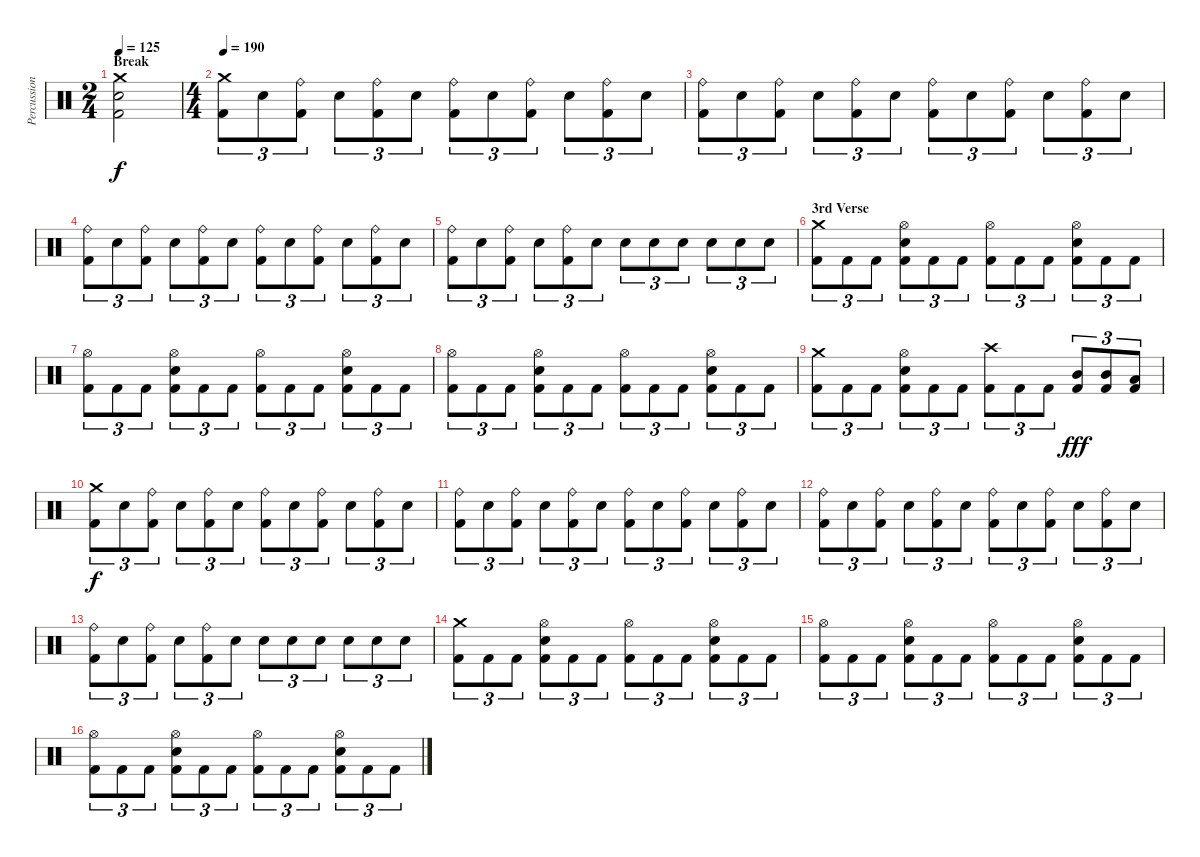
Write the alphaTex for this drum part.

\track ("Percussion" "Percussion") {instrument percussion}
\staff {score}
\articulation defaults
\ts (2 4)
\section ("" "Break")
\tempo 125
\clef neutral
\ks c
("Kick (hit) 2" "Electric Snare (hit)" "Crash medium (hit)").2{dy f} |
\ts (4 4)
\tempo 190
("Kick (hit) 2" "Crash medium (hit)").8{tu (3 2)} "Electric Snare (hit)".8{tu (3 2)} ("Kick (hit) 2" "Ride (bell)").8{tu (3 2)} "Electric Snare (hit)".8{tu (3 2)} ("Kick (hit) 2" "Ride (bell)").8{tu (3 2)} "Electric Snare (hit)".8{tu (3 2)} ("Kick (hit) 2" "Ride (bell)").8{tu (3 2)} "Electric Snare (hit)".8{tu (3 2)} ("Kick (hit) 2" "Ride (bell)").8{tu (3 2)} "Electric Snare (hit)".8{tu (3 2)} ("Kick (hit) 2" "Ride (bell)").8{tu (3 2)} "Electric Snare (hit)".8{tu (3 2)} |
("Kick (hit) 2" "Ride (bell)").8{tu (3 2)} "Electric Snare (hit)".8{tu (3 2)} ("Kick (hit) 2" "Ride (bell)").8{tu (3 2)} "Electric Snare (hit)".8{tu (3 2)} ("Kick (hit) 2" "Ride (bell)").8{tu (3 2)} "Electric Snare (hit)".8{tu (3 2)} ("Kick (hit) 2" "Ride (bell)").8{tu (3 2)} "Electric Snare (hit)".8{tu (3 2)} ("Kick (hit) 2" "Ride (bell)").8{tu (3 2)} "Electric Snare (hit)".8{tu (3 2)} ("Kick (hit) 2" "Ride (bell)").8{tu (3 2)} "Electric Snare (hit)".8{tu (3 2)} |
("Kick (hit) 2" "Ride (bell)").8{tu (3 2)} "Electric Snare (hit)".8{tu (3 2)} ("Kick (hit) 2" "Ride (bell)").8{tu (3 2)} "Electric Snare (hit)".8{tu (3 2)} ("Kick (hit) 2" "Ride (bell)").8{tu (3 2)} "Electric Snare (hit)".8{tu (3 2)} ("Kick (hit) 2" "Ride (bell)").8{tu (3 2)} "Electric Snare (hit)".8{tu (3 2)} ("Kick (hit) 2" "Ride (bell)").8{tu (3 2)} "Electric Snare (hit)".8{tu (3 2)} ("Kick (hit) 2" "Ride (bell)").8{tu (3 2)} "Electric Snare (hit)".8{tu (3 2)} |
("Kick (hit) 2" "Ride (bell)").8{tu (3 2)} "Electric Snare (hit)".8{tu (3 2)} ("Kick (hit) 2" "Ride (bell)").8{tu (3 2)} "Electric Snare (hit)".8{tu (3 2)} ("Kick (hit) 2" "Ride (bell)").8{tu (3 2)} "Electric Snare (hit)".8{tu (3 2)} "Electric Snare (hit)".8{tu (3 2)} "Electric Snare (hit)".8{tu (3 2)} "Electric Snare (hit)".8{tu (3 2)} "Electric Snare (hit)".8{tu (3 2)} "Electric Snare (hit)".8{tu (3 2)} "Electric Snare (hit)".8{tu (3 2)} |
\section ("" "3rd Verse")
("Kick (hit) 2" "Crash medium (hit)").8{tu (3 2)} "Kick (hit) 2".8{tu (3 2)} "Kick (hit) 2".8{tu (3 2)} ("Kick (hit) 2" "Electric Snare (hit)" "Hi-Hat (open)").8{tu (3 2)} "Kick (hit) 2".8{tu (3 2)} "Kick (hit) 2".8{tu (3 2)} ("Kick (hit) 2" "Hi-Hat (open)").8{tu (3 2)} "Kick (hit) 2".8{tu (3 2)} "Kick (hit) 2".8{tu (3 2)} ("Kick (hit) 2" "Electric Snare (hit)" "Hi-Hat (open)").8{tu (3 2)} "Kick (hit) 2".8{tu (3 2)} "Kick (hit) 2".8{tu (3 2)} |
("Kick (hit) 2" "Hi-Hat (open)").8{tu (3 2)} "Kick (hit) 2".8{tu (3 2)} "Kick (hit) 2".8{tu (3 2)} ("Kick (hit) 2" "Electric Snare (hit)" "Hi-Hat (open)").8{tu (3 2)} "Kick (hit) 2".8{tu (3 2)} "Kick (hit) 2".8{tu (3 2)} ("Kick (hit) 2" "Hi-Hat (open)").8{tu (3 2)} "Kick (hit) 2".8{tu (3 2)} "Kick (hit) 2".8{tu (3 2)} ("Kick (hit) 2" "Electric Snare (hit)" "Hi-Hat (open)").8{tu (3 2)} "Kick (hit) 2".8{tu (3 2)} "Kick (hit) 2".8{tu (3 2)} |
("Kick (hit) 2" "Hi-Hat (open)").8{tu (3 2)} "Kick (hit) 2".8{tu (3 2)} "Kick (hit) 2".8{tu (3 2)} ("Kick (hit) 2" "Electric Snare (hit)" "Hi-Hat (open)").8{tu (3 2)} "Kick (hit) 2".8{tu (3 2)} "Kick (hit) 2".8{tu (3 2)} ("Kick (hit) 2" "Hi-Hat (open)").8{tu (3 2)} "Kick (hit) 2".8{tu (3 2)} "Kick (hit) 2".8{tu (3 2)} ("Kick (hit) 2" "Electric Snare (hit)" "Hi-Hat (open)").8{tu (3 2)} "Kick (hit) 2".8{tu (3 2)} "Kick (hit) 2".8{tu (3 2)} |
("Kick (hit) 2" "Crash medium (hit)").8{tu (3 2)} "Kick (hit) 2".8{tu (3 2)} "Kick (hit) 2".8{tu (3 2)} ("Kick (hit) 2" "Electric Snare (hit)" "Hi-Hat (open)").8{tu (3 2)} "Kick (hit) 2".8{tu (3 2)} "Kick (hit) 2".8{tu (3 2)} ("Kick (hit) 2" "Crash high (hit)").8{tu (3 2)} "Kick (hit) 2".8{tu (3 2)} "Kick (hit) 2".8{tu (3 2)} ("Kick (hit) 2" "Mid Tom (hit)").8{tu (3 2) dy fff} ("Kick (hit) 2" "Mid Tom (hit)").8{tu (3 2)} ("Kick (hit) 2" "Low Tom (hit)").8{tu (3 2)} |
("Kick (hit) 2" "Crash medium (hit)").8{tu (3 2) dy f} "Electric Snare (hit)".8{tu (3 2)} ("Kick (hit) 2" "Ride (bell)").8{tu (3 2)} "Electric Snare (hit)".8{tu (3 2)} ("Kick (hit) 2" "Ride (bell)").8{tu (3 2)} "Electric Snare (hit)".8{tu (3 2)} ("Kick (hit) 2" "Ride (bell)").8{tu (3 2)} "Electric Snare (hit)".8{tu (3 2)} ("Kick (hit) 2" "Ride (bell)").8{tu (3 2)} "Electric Snare (hit)".8{tu (3 2)} ("Kick (hit) 2" "Ride (bell)").8{tu (3 2)} "Electric Snare (hit)".8{tu (3 2)} |
("Kick (hit) 2" "Ride (bell)").8{tu (3 2)} "Electric Snare (hit)".8{tu (3 2)} ("Kick (hit) 2" "Ride (bell)").8{tu (3 2)} "Electric Snare (hit)".8{tu (3 2)} ("Kick (hit) 2" "Ride (bell)").8{tu (3 2)} "Electric Snare (hit)".8{tu (3 2)} ("Kick (hit) 2" "Ride (bell)").8{tu (3 2)} "Electric Snare (hit)".8{tu (3 2)} ("Kick (hit) 2" "Ride (bell)").8{tu (3 2)} "Electric Snare (hit)".8{tu (3 2)} ("Kick (hit) 2" "Ride (bell)").8{tu (3 2)} "Electric Snare (hit)".8{tu (3 2)} |
("Kick (hit) 2" "Ride (bell)").8{tu (3 2)} "Electric Snare (hit)".8{tu (3 2)} ("Kick (hit) 2" "Ride (bell)").8{tu (3 2)} "Electric Snare (hit)".8{tu (3 2)} ("Kick (hit) 2" "Ride (bell)").8{tu (3 2)} "Electric Snare (hit)".8{tu (3 2)} ("Kick (hit) 2" "Ride (bell)").8{tu (3 2)} "Electric Snare (hit)".8{tu (3 2)} ("Kick (hit) 2" "Ride (bell)").8{tu (3 2)} "Electric Snare (hit)".8{tu (3 2)} ("Kick (hit) 2" "Ride (bell)").8{tu (3 2)} "Electric Snare (hit)".8{tu (3 2)} |
("Kick (hit) 2" "Ride (bell)").8{tu (3 2)} "Electric Snare (hit)".8{tu (3 2)} ("Kick (hit) 2" "Ride (bell)").8{tu (3 2)} "Electric Snare (hit)".8{tu (3 2)} ("Kick (hit) 2" "Ride (bell)").8{tu (3 2)} "Electric Snare (hit)".8{tu (3 2)} "Electric Snare (hit)".8{tu (3 2)} "Electric Snare (hit)".8{tu (3 2)} "Electric Snare (hit)".8{tu (3 2)} "Electric Snare (hit)".8{tu (3 2)} "Electric Snare (hit)".8{tu (3 2)} "Electric Snare (hit)".8{tu (3 2)} |
("Kick (hit) 2" "Crash medium (hit)").8{tu (3 2)} "Kick (hit) 2".8{tu (3 2)} "Kick (hit) 2".8{tu (3 2)} ("Kick (hit) 2" "Electric Snare (hit)" "Hi-Hat (open)").8{tu (3 2)} "Kick (hit) 2".8{tu (3 2)} "Kick (hit) 2".8{tu (3 2)} ("Kick (hit) 2" "Hi-Hat (open)").8{tu (3 2)} "Kick (hit) 2".8{tu (3 2)} "Kick (hit) 2".8{tu (3 2)} ("Kick (hit) 2" "Electric Snare (hit)" "Hi-Hat (open)").8{tu (3 2)} "Kick (hit) 2".8{tu (3 2)} "Kick (hit) 2".8{tu (3 2)} |
("Kick (hit) 2" "Hi-Hat (open)").8{tu (3 2)} "Kick (hit) 2".8{tu (3 2)} "Kick (hit) 2".8{tu (3 2)} ("Kick (hit) 2" "Electric Snare (hit)" "Hi-Hat (open)").8{tu (3 2)} "Kick (hit) 2".8{tu (3 2)} "Kick (hit) 2".8{tu (3 2)} ("Kick (hit) 2" "Hi-Hat (open)").8{tu (3 2)} "Kick (hit) 2".8{tu (3 2)} "Kick (hit) 2".8{tu (3 2)} ("Kick (hit) 2" "Electric Snare (hit)" "Hi-Hat (open)").8{tu (3 2)} "Kick (hit) 2".8{tu (3 2)} "Kick (hit) 2".8{tu (3 2)} |
("Kick (hit) 2" "Hi-Hat (open)").8{tu (3 2)} "Kick (hit) 2".8{tu (3 2)} "Kick (hit) 2".8{tu (3 2)} ("Kick (hit) 2" "Electric Snare (hit)" "Hi-Hat (open)").8{tu (3 2)} "Kick (hit) 2".8{tu (3 2)} "Kick (hit) 2".8{tu (3 2)} ("Kick (hit) 2" "Hi-Hat (open)").8{tu (3 2)} "Kick (hit) 2".8{tu (3 2)} "Kick (hit) 2".8{tu (3 2)} ("Kick (hit) 2" "Electric Snare (hit)" "Hi-Hat (open)").8{tu (3 2)} "Kick (hit) 2".8{tu (3 2)} "Kick (hit) 2".8{tu (3 2)}
